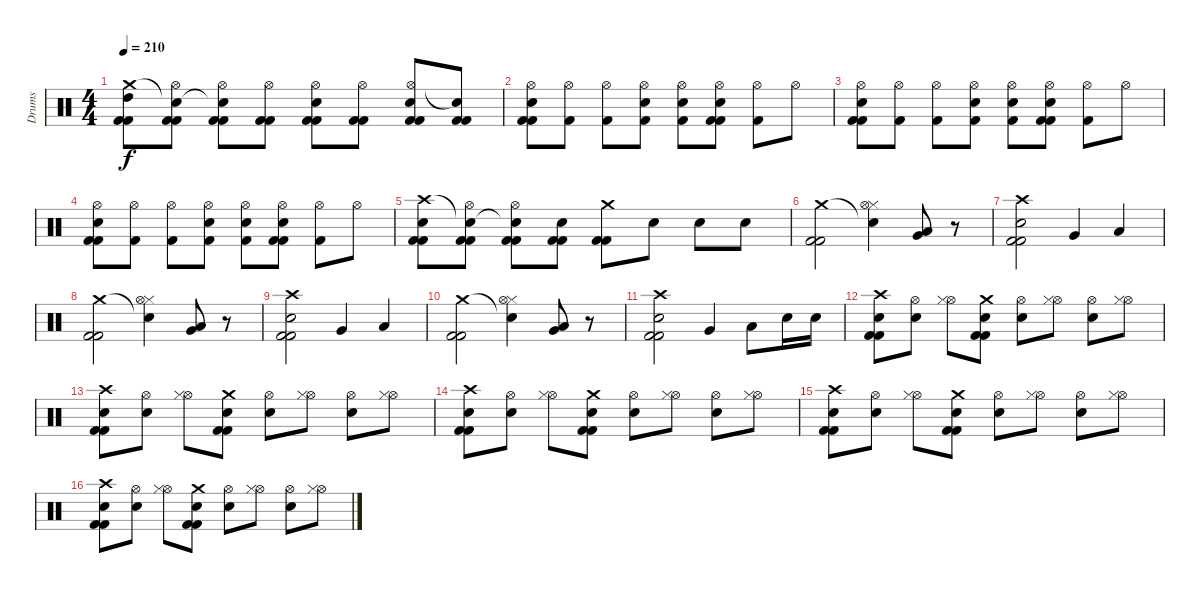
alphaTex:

\track ("Drums" "Drums") {instrument percussion}
\staff {score}
\articulation defaults
\ts (4 4)
\tempo 210
\clef neutral
\ks c
("Crash medium (hit)" "High Tom (hit)" "Kick (hit) 2" "Kick (hit) 2").8{dy f} ("Snare (hit)"{t} "Hi-Hat (open)" "Kick (hit) 2" "Kick (hit) 2").8 ("Snare (hit)"{t} "Hi-Hat (open)" "Kick (hit) 2" "Kick (hit) 2").8 ("Hi-Hat (open)" "Kick (hit) 2" "Kick (hit) 2").8 ("Hi-Hat (open)" "Electric Snare (hit)" "Kick (hit) 2" "Kick (hit) 2").8 ("Hi-Hat (open)" "Kick (hit) 2" "Kick (hit) 2").8 ("Hi-Hat (open)" "Electric Snare (hit)" "Kick (hit) 2" "Kick (hit) 2").8 ("Snare (hit)"{t} "Kick (hit) 2" "Kick (hit) 2").8 |
("Hi-Hat (open)" "Snare (hit) 2" "Kick (hit) 2" "Kick (hit) 2").8 ("Hi-Hat (open)" "Kick (hit) 2").8 ("Hi-Hat (open)" "Kick (hit) 2").8 ("Hi-Hat (open)" "Electric Snare (hit)" "Kick (hit) 2").8 ("Hi-Hat (open)" "Snare (hit) 2" "Kick (hit) 2").8 ("Hi-Hat (open)" "Snare (hit) 2" "Kick (hit) 2" "Kick (hit) 2").8 ("Hi-Hat (open)" "Kick (hit) 2").8 "Hi-Hat (open)".8 |
("Hi-Hat (open)" "Snare (hit) 2" "Kick (hit) 2" "Kick (hit) 2").8 ("Hi-Hat (open)" "Kick (hit) 2").8 ("Hi-Hat (open)" "Kick (hit) 2").8 ("Hi-Hat (open)" "Electric Snare (hit)" "Kick (hit) 2").8 ("Hi-Hat (open)" "Snare (hit) 2" "Kick (hit) 2").8 ("Hi-Hat (open)" "Snare (hit) 2" "Kick (hit) 2" "Kick (hit) 2").8 ("Hi-Hat (open)" "Kick (hit) 2").8 "Hi-Hat (open)".8 |
("Hi-Hat (open)" "Snare (hit) 2" "Kick (hit) 2" "Kick (hit) 2").8 ("Hi-Hat (open)" "Kick (hit) 2").8 ("Hi-Hat (open)" "Kick (hit) 2").8 ("Hi-Hat (open)" "Electric Snare (hit)" "Kick (hit) 2").8 ("Hi-Hat (open)" "Snare (hit) 2" "Kick (hit) 2").8 ("Hi-Hat (open)" "Snare (hit) 2" "Kick (hit) 2" "Kick (hit) 2").8 ("Hi-Hat (open)" "Kick (hit) 2").8 "Hi-Hat (open)".8 |
("Crash high (hit)" "Snare (hit) 2" "Kick (hit) 2" "Kick (hit) 2").8 ("Snare (hit)"{t} "Hi-Hat (open)" "Kick (hit) 2" "Kick (hit) 2").8 ("Snare (hit)"{t} "Hi-Hat (open)" "Kick (hit) 2" "Kick (hit) 2").8 ("Electric Snare (hit)" "Kick (hit) 2" "Kick (hit) 2").8 ("Crash medium (hit)" "Kick (hit) 2" "Kick (hit) 2").8 "Snare (hit) 2".8 "Snare (hit) 2".8 "Snare (hit) 2".8 |
("Crash medium (hit)" "Kick (hit) 2" "Kick (hit) 2").2 ("Snare (hit)"{t} "Hi-Hat (closed)" "Hi-Hat (open)").4 ("Low Floor Tom (hit)" "Very Low Tom (hit)").8 r.8 |
("Crash high (hit)" "Electric Snare (hit)" "Kick (hit) 2" "Kick (hit) 2").2 "Very Low Tom (hit)".4 "Low Tom (hit)".4 |
("Crash medium (hit)" "Kick (hit) 2" "Kick (hit) 2").2 ("Snare (hit)"{t} "Hi-Hat (closed)" "Hi-Hat (open)").4 ("Low Floor Tom (hit)" "Very Low Tom (hit)").8 r.8 |
("Crash high (hit)" "Electric Snare (hit)" "Kick (hit) 2" "Kick (hit) 2").2 "Very Low Tom (hit)".4 "Low Tom (hit)".4 |
("Crash medium (hit)" "Kick (hit) 2" "Kick (hit) 2").2 ("Snare (hit)"{t} "Hi-Hat (closed)" "Hi-Hat (open)").4 ("Low Floor Tom (hit)" "Very Low Tom (hit)").8 r.8 |
("Crash high (hit)" "Electric Snare (hit)" "Kick (hit) 2" "Kick (hit) 2").2 "Very Low Tom (hit)".4 "Low Tom (hit)".8 "Snare (hit) 2".16 "Snare (hit) 2".16 |
("Crash high (hit)" "Snare (hit) 2" "Kick (hit) 2" "Kick (hit) 2").8 ("Hi-Hat (open)" "Snare (hit) 2").8 ("Hi-Hat (open)" "Hi-Hat (closed)").8 ("Crash medium (hit)" "Snare (hit) 2" "Kick (hit) 2" "Kick (hit) 2").8 ("Hi-Hat (open)" "Snare (hit) 2").8 ("Hi-Hat (open)" "Hi-Hat (closed)").8 ("Hi-Hat (open)" "Snare (hit) 2").8 ("Hi-Hat (open)" "Hi-Hat (closed)").8 |
("Crash high (hit)" "Snare (hit) 2" "Kick (hit) 2" "Kick (hit) 2").8 ("Hi-Hat (open)" "Snare (hit) 2").8 ("Hi-Hat (open)" "Hi-Hat (closed)").8 ("Crash medium (hit)" "Snare (hit) 2" "Kick (hit) 2" "Kick (hit) 2").8 ("Hi-Hat (open)" "Snare (hit) 2").8 ("Hi-Hat (open)" "Hi-Hat (closed)").8 ("Hi-Hat (open)" "Snare (hit) 2").8 ("Hi-Hat (open)" "Hi-Hat (closed)").8 |
("Crash high (hit)" "Snare (hit) 2" "Kick (hit) 2" "Kick (hit) 2").8 ("Hi-Hat (open)" "Snare (hit) 2").8 ("Hi-Hat (open)" "Hi-Hat (closed)").8 ("Crash medium (hit)" "Snare (hit) 2" "Kick (hit) 2" "Kick (hit) 2").8 ("Hi-Hat (open)" "Snare (hit) 2").8 ("Hi-Hat (open)" "Hi-Hat (closed)").8 ("Hi-Hat (open)" "Snare (hit) 2").8 ("Hi-Hat (open)" "Hi-Hat (closed)").8 |
("Crash high (hit)" "Snare (hit) 2" "Kick (hit) 2" "Kick (hit) 2").8 ("Hi-Hat (open)" "Snare (hit) 2").8 ("Hi-Hat (open)" "Hi-Hat (closed)").8 ("Crash medium (hit)" "Snare (hit) 2" "Kick (hit) 2" "Kick (hit) 2").8 ("Hi-Hat (open)" "Snare (hit) 2").8 ("Hi-Hat (open)" "Hi-Hat (closed)").8 ("Hi-Hat (open)" "Snare (hit) 2").8 ("Hi-Hat (open)" "Hi-Hat (closed)").8 |
("Crash high (hit)" "Snare (hit) 2" "Kick (hit) 2" "Kick (hit) 2").8 ("Hi-Hat (open)" "Snare (hit) 2").8 ("Hi-Hat (open)" "Hi-Hat (closed)").8 ("Crash medium (hit)" "Snare (hit) 2" "Kick (hit) 2" "Kick (hit) 2").8 ("Hi-Hat (open)" "Snare (hit) 2").8 ("Hi-Hat (open)" "Hi-Hat (closed)").8 ("Hi-Hat (open)" "Snare (hit) 2").8 ("Hi-Hat (open)" "Hi-Hat (closed)").8
